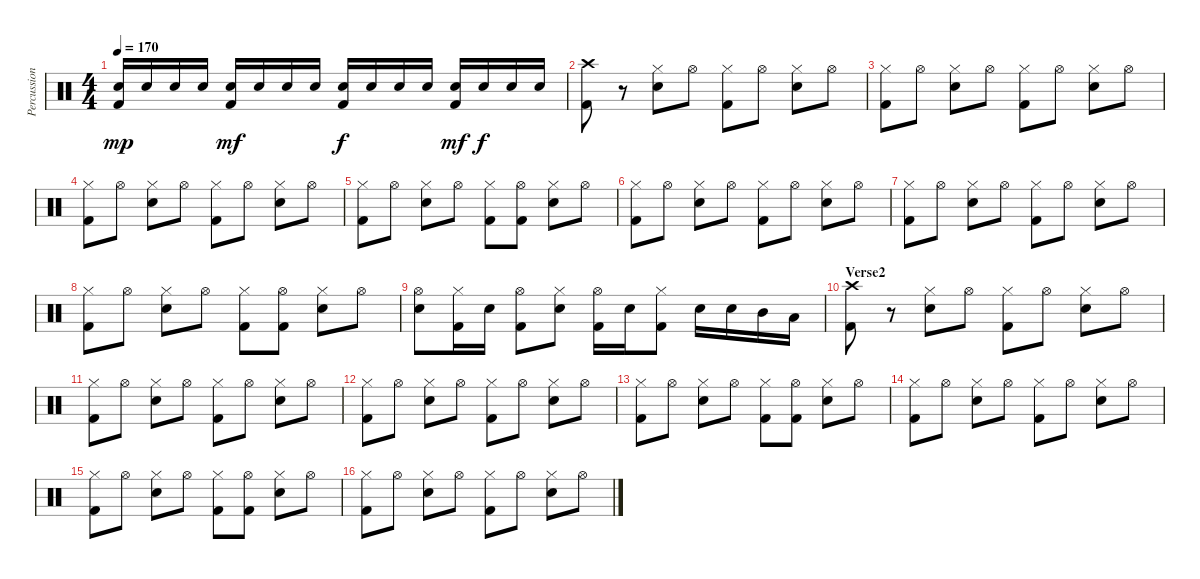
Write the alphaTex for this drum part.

\track ("Percussion" "Percussion") {instrument percussion}
\staff {score}
\articulation defaults
\ts (4 4)
\tempo 170
\clef neutral
\ks c
("Kick (hit) 2" "Snare (hit) 2").16{dy mp} "Snare (hit) 2".16 "Snare (hit) 2".16 "Snare (hit) 2".16 ("Kick (hit) 2" "Electric Snare (hit)").16{dy mf} "Electric Snare (hit)".16 "Electric Snare (hit)".16 "Electric Snare (hit)".16 ("Kick (hit) 2" "Electric Snare (hit)").16{dy f} "Electric Snare (hit)".16 "Electric Snare (hit)".16 "Electric Snare (hit)".16 ("Kick (hit) 2" "Electric Snare (hit)").16{dy mf} "Electric Snare (hit)".16{dy f} "Electric Snare (hit)".16 "Electric Snare (hit)".16 |
("Kick (hit) 2" "Crash high (hit)").8 r.8 ("Electric Snare (hit)" "Hi-Hat (closed)").8 "Hi-Hat (open)".8 ("Kick (hit) 2" "Hi-Hat (closed)").8 "Hi-Hat (open)".8 ("Electric Snare (hit)" "Hi-Hat (closed)").8 "Hi-Hat (open)".8 |
("Kick (hit) 2" "Hi-Hat (closed)").8 "Hi-Hat (open)".8 ("Electric Snare (hit)" "Hi-Hat (closed)").8 "Hi-Hat (open)".8 ("Kick (hit) 2" "Hi-Hat (closed)").8 "Hi-Hat (open)".8 ("Electric Snare (hit)" "Hi-Hat (closed)").8 "Hi-Hat (open)".8 |
("Kick (hit) 2" "Hi-Hat (closed)").8 "Hi-Hat (open)".8 ("Electric Snare (hit)" "Hi-Hat (closed)").8 "Hi-Hat (open)".8 ("Kick (hit) 2" "Hi-Hat (closed)").8 "Hi-Hat (open)".8 ("Electric Snare (hit)" "Hi-Hat (closed)").8 "Hi-Hat (open)".8 |
("Kick (hit) 2" "Hi-Hat (closed)").8 "Hi-Hat (open)".8 ("Electric Snare (hit)" "Hi-Hat (closed)").8 "Hi-Hat (open)".8 ("Kick (hit) 2" "Hi-Hat (closed)").8 ("Kick (hit) 2" "Hi-Hat (open)").8 ("Electric Snare (hit)" "Hi-Hat (closed)").8 "Hi-Hat (open)".8 |
("Kick (hit) 2" "Hi-Hat (closed)").8 "Hi-Hat (open)".8 ("Electric Snare (hit)" "Hi-Hat (closed)").8 "Hi-Hat (open)".8 ("Kick (hit) 2" "Hi-Hat (closed)").8 "Hi-Hat (open)".8 ("Electric Snare (hit)" "Hi-Hat (closed)").8 "Hi-Hat (open)".8 |
("Kick (hit) 2" "Hi-Hat (closed)").8 "Hi-Hat (open)".8 ("Electric Snare (hit)" "Hi-Hat (closed)").8 "Hi-Hat (open)".8 ("Kick (hit) 2" "Hi-Hat (closed)").8 "Hi-Hat (open)".8 ("Electric Snare (hit)" "Hi-Hat (closed)").8 "Hi-Hat (open)".8 |
("Kick (hit) 2" "Hi-Hat (closed)").8 "Hi-Hat (open)".8 ("Electric Snare (hit)" "Hi-Hat (closed)").8 "Hi-Hat (open)".8 ("Kick (hit) 2" "Hi-Hat (closed)").8 ("Kick (hit) 2" "Hi-Hat (open)").8 ("Electric Snare (hit)" "Hi-Hat (closed)").8 "Hi-Hat (open)".8 |
("Electric Snare (hit)" "Hi-Hat (open)").8 ("Kick (hit) 2" "Hi-Hat (closed)").16 "Electric Snare (hit)".16 ("Kick (hit) 2" "Hi-Hat (open)").8 ("Electric Snare (hit)" "Hi-Hat (closed)").8 ("Kick (hit) 2" "Hi-Hat (open)").16 "Electric Snare (hit)".16 ("Kick (hit) 2" "Hi-Hat (closed)").8 "Electric Snare (hit)".16 "Electric Snare (hit)".16 "Mid Tom (hit)".16 "Low Tom (hit)".16 |
\section ("" "Verse2")
("Kick (hit) 2" "Crash high (hit)").8 r.8 ("Electric Snare (hit)" "Hi-Hat (closed)").8 "Hi-Hat (open)".8 ("Kick (hit) 2" "Hi-Hat (closed)").8 "Hi-Hat (open)".8 ("Electric Snare (hit)" "Hi-Hat (closed)").8 "Hi-Hat (open)".8 |
("Kick (hit) 2" "Hi-Hat (closed)").8 "Hi-Hat (open)".8 ("Electric Snare (hit)" "Hi-Hat (closed)").8 "Hi-Hat (open)".8 ("Kick (hit) 2" "Hi-Hat (closed)").8 "Hi-Hat (open)".8 ("Electric Snare (hit)" "Hi-Hat (closed)").8 "Hi-Hat (open)".8 |
("Kick (hit) 2" "Hi-Hat (closed)").8 "Hi-Hat (open)".8 ("Electric Snare (hit)" "Hi-Hat (closed)").8 "Hi-Hat (open)".8 ("Kick (hit) 2" "Hi-Hat (closed)").8 "Hi-Hat (open)".8 ("Electric Snare (hit)" "Hi-Hat (closed)").8 "Hi-Hat (open)".8 |
("Kick (hit) 2" "Hi-Hat (closed)").8 "Hi-Hat (open)".8 ("Electric Snare (hit)" "Hi-Hat (closed)").8 "Hi-Hat (open)".8 ("Kick (hit) 2" "Hi-Hat (closed)").8 ("Kick (hit) 2" "Hi-Hat (open)").8 ("Electric Snare (hit)" "Hi-Hat (closed)").8 "Hi-Hat (open)".8 |
("Kick (hit) 2" "Hi-Hat (closed)").8 "Hi-Hat (open)".8 ("Electric Snare (hit)" "Hi-Hat (closed)").8 "Hi-Hat (open)".8 ("Kick (hit) 2" "Hi-Hat (closed)").8 "Hi-Hat (open)".8 ("Electric Snare (hit)" "Hi-Hat (closed)").8 "Hi-Hat (open)".8 |
("Kick (hit) 2" "Hi-Hat (closed)").8 "Hi-Hat (open)".8 ("Electric Snare (hit)" "Hi-Hat (closed)").8 "Hi-Hat (open)".8 ("Kick (hit) 2" "Hi-Hat (closed)").8 ("Kick (hit) 2" "Hi-Hat (open)").8 ("Electric Snare (hit)" "Hi-Hat (closed)").8 "Hi-Hat (open)".8 |
("Kick (hit) 2" "Hi-Hat (closed)").8 "Hi-Hat (open)".8 ("Electric Snare (hit)" "Hi-Hat (closed)").8 "Hi-Hat (open)".8 ("Kick (hit) 2" "Hi-Hat (closed)").8 "Hi-Hat (open)".8 ("Electric Snare (hit)" "Hi-Hat (closed)").8 "Hi-Hat (open)".8
